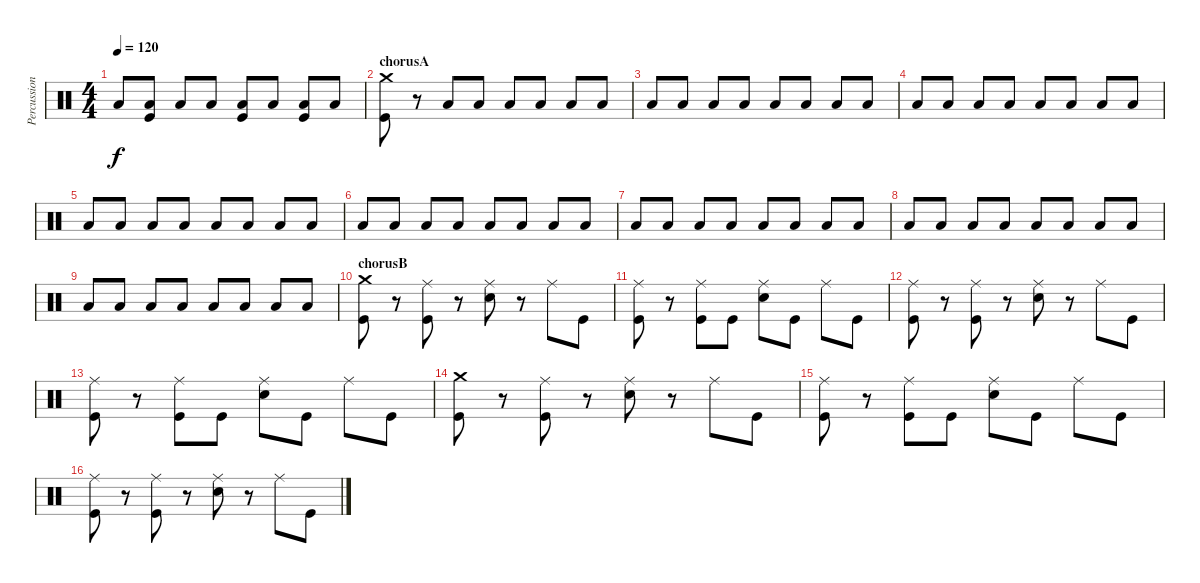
\track ("Percussion" "Percussion") {instrument percussion}
\staff {score}
\articulation defaults
\ts (4 4)
\tempo 120
\clef neutral
\ks c "Low Floor Tom (hit)".8{dy f}
("Low Floor Tom (hit)" "Kick (hit)").8 "Low Floor Tom (hit)".8 "Low Floor Tom (hit)".8 ("Low Floor Tom (hit)" "Kick (hit)").8 "Low Floor Tom (hit)".8 ("Low Floor Tom (hit)" "Kick (hit)").8 "Low Floor Tom (hit)".8 |
\section ("" "chorusA")
("Crash medium (hit)" "Kick (hit)").8 r.8 "Low Floor Tom (hit)".8 "Low Floor Tom (hit)".8 "Low Floor Tom (hit)".8 "Low Floor Tom (hit)".8 "Low Floor Tom (hit)".8 "Low Floor Tom (hit)".8 |
"Low Floor Tom (hit)".8 "Low Floor Tom (hit)".8 "Low Floor Tom (hit)".8 "Low Floor Tom (hit)".8 "Low Floor Tom (hit)".8 "Low Floor Tom (hit)".8 "Low Floor Tom (hit)".8 "Low Floor Tom (hit)".8 |
"Low Floor Tom (hit)".8 "Low Floor Tom (hit)".8 "Low Floor Tom (hit)".8 "Low Floor Tom (hit)".8 "Low Floor Tom (hit)".8 "Low Floor Tom (hit)".8 "Low Floor Tom (hit)".8 "Low Floor Tom (hit)".8 |
"Low Floor Tom (hit)".8 "Low Floor Tom (hit)".8 "Low Floor Tom (hit)".8 "Low Floor Tom (hit)".8 "Low Floor Tom (hit)".8 "Low Floor Tom (hit)".8 "Low Floor Tom (hit)".8 "Low Floor Tom (hit)".8 |
"Low Floor Tom (hit)".8 "Low Floor Tom (hit)".8 "Low Floor Tom (hit)".8 "Low Floor Tom (hit)".8 "Low Floor Tom (hit)".8 "Low Floor Tom (hit)".8 "Low Floor Tom (hit)".8 "Low Floor Tom (hit)".8 |
"Low Floor Tom (hit)".8 "Low Floor Tom (hit)".8 "Low Floor Tom (hit)".8 "Low Floor Tom (hit)".8 "Low Floor Tom (hit)".8 "Low Floor Tom (hit)".8 "Low Floor Tom (hit)".8 "Low Floor Tom (hit)".8 |
"Low Floor Tom (hit)".8 "Low Floor Tom (hit)".8 "Low Floor Tom (hit)".8 "Low Floor Tom (hit)".8 "Low Floor Tom (hit)".8 "Low Floor Tom (hit)".8 "Low Floor Tom (hit)".8 "Low Floor Tom (hit)".8 |
"Low Floor Tom (hit)".8 "Low Floor Tom (hit)".8 "Low Floor Tom (hit)".8 "Low Floor Tom (hit)".8 "Low Floor Tom (hit)".8 "Low Floor Tom (hit)".8 "Low Floor Tom (hit)".8 "Low Floor Tom (hit)".8 |
\section ("" "chorusB")
("Crash medium (hit)" "Kick (hit)").8 r.8 ("Ride (middle)" "Kick (hit)").8 r.8 ("Ride (middle)" "Electric Snare (hit)").8 r.8 "Ride (middle)".8 "Kick (hit)".8 |
("Ride (middle)" "Kick (hit)").8 r.8 ("Ride (middle)" "Kick (hit)").8 "Kick (hit)".8 ("Ride (middle)" "Electric Snare (hit)").8 "Kick (hit)".8 "Ride (middle)".8 "Kick (hit)".8 |
("Ride (middle)" "Kick (hit)").8 r.8 ("Ride (middle)" "Kick (hit)").8 r.8 ("Ride (middle)" "Electric Snare (hit)").8 r.8 "Ride (middle)".8 "Kick (hit)".8 |
("Ride (middle)" "Kick (hit)").8 r.8 ("Ride (middle)" "Kick (hit)").8 "Kick (hit)".8 ("Ride (middle)" "Electric Snare (hit)").8 "Kick (hit)".8 "Ride (middle)".8 "Kick (hit)".8 |
("Crash medium (hit)" "Kick (hit)").8 r.8 ("Ride (middle)" "Kick (hit)").8 r.8 ("Ride (middle)" "Electric Snare (hit)").8 r.8 "Ride (middle)".8 "Kick (hit)".8 |
("Ride (middle)" "Kick (hit)").8 r.8 ("Ride (middle)" "Kick (hit)").8 "Kick (hit)".8 ("Ride (middle)" "Electric Snare (hit)").8 "Kick (hit)".8 "Ride (middle)".8 "Kick (hit)".8 |
("Ride (middle)" "Kick (hit)").8 r.8 ("Ride (middle)" "Kick (hit)").8 r.8 ("Ride (middle)" "Electric Snare (hit)").8 r.8 "Ride (middle)".8 "Kick (hit)".8
